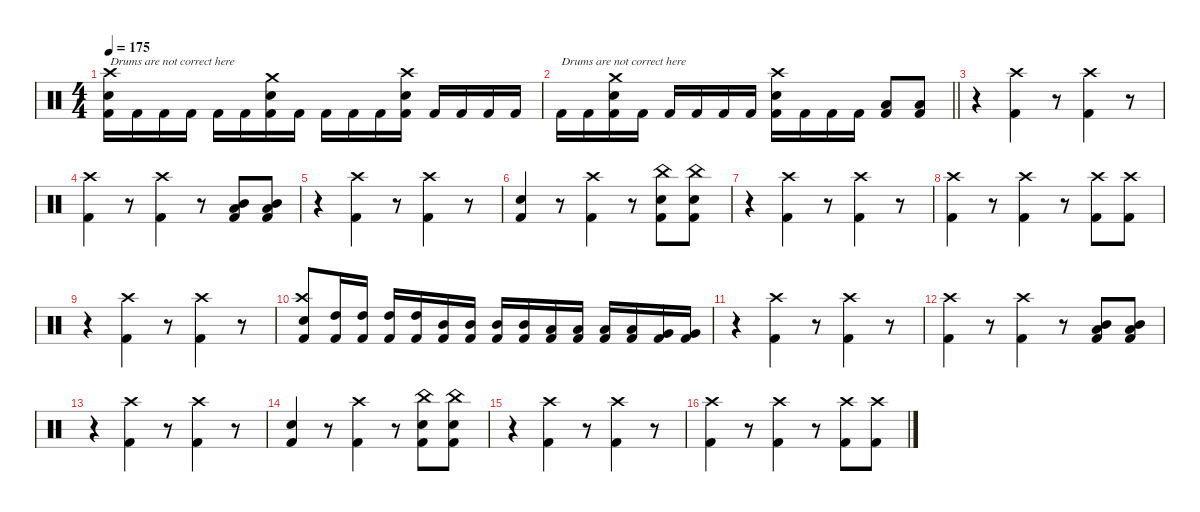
\defaultSystemsLayout 4
\hideDynamics
\bracketExtendMode nobrackets
\singleTrackTrackNamePolicy hidden
\multiTrackTrackNamePolicy hidden
\firstSystemTrackNameMode fullname
\firstSystemTrackNameOrientation horizontal
\otherSystemsTrackNameOrientation horizontal
\track ("Fredrik Andersson" "drm.") {instrument percussion}
\staff {score}
\articulation defaults
\ts (4 4)
\tempo 175
\clef neutral
\ks c
("Crash high (hit)" "Snare (hit) 2" "Kick (hit) 2").16{txt "Drums are not correct here" dy f beam Down} "Kick (hit) 2".16{beam Down} "Kick (hit) 2".16{beam Down} "Kick (hit) 2".16{beam Down} "Kick (hit) 2".16{beam Down} "Kick (hit) 2".16{beam Down} ("Crash medium (hit)" "Snare (hit) 2" "Kick (hit) 2").16{beam Down} "Kick (hit) 2".16{beam Down} "Kick (hit) 2".16{beam Down} "Kick (hit) 2".16{beam Down} "Kick (hit) 2".16{beam Down} ("Crash high (hit)" "Snare (hit) 2" "Kick (hit) 2").16{beam Down} "Kick (hit) 2".16{beam Up} "Kick (hit) 2".16{beam Up} "Kick (hit) 2".16{beam Up} "Kick (hit) 2".16{beam Up} |
\barLineRight lightlight "Kick (hit) 2".16{txt "Drums are not correct here" beam Down} "Kick (hit) 2".16{beam Down}
("Crash medium (hit)" "Snare (hit) 2" "Kick (hit) 2").16{beam Down} "Kick (hit) 2".16{beam Down} "Kick (hit) 2".16{beam Up} "Kick (hit) 2".16{beam Up} "Kick (hit) 2".16{beam Up} "Kick (hit) 2".16{beam Up} ("Crash high (hit)" "Snare (hit) 2" "Kick (hit) 2").16{beam Down} "Kick (hit) 2".16{beam Down} "Kick (hit) 2".16{beam Down} "Kick (hit) 2".16{beam Down} ("Low Tom (hit)" "Kick (hit) 2").8{beam Up} ("Low Tom (hit)" "Kick (hit) 2").8{beam Up} |
r.4{beam Down} ("Crash high (hit)" "Kick (hit) 2").4{beam Down} r.8{beam Down} ("Crash high (hit)" "Kick (hit) 2").4{beam Down} r.8{beam Down} |
("Crash high (hit)" "Kick (hit) 2").4{beam Down} r.8{beam Down} ("Crash high (hit)" "Kick (hit) 2").4{beam Down} r.8{beam Down} ("Mid Tom (hit)" "Low Tom (hit)" "Kick (hit) 2").8{beam Up} ("Mid Tom (hit)" "Low Tom (hit)" "Kick (hit) 2").8{beam Up} |
r.4{beam Down} ("Crash high (hit)" "Kick (hit) 2").4{beam Down} r.8{beam Down} ("Crash high (hit)" "Kick (hit) 2").4{beam Down} r.8{beam Down} |
("Snare (hit) 2" "Kick (hit) 2").4{beam Up} r.8{beam Up} ("Crash high (hit)" "Kick (hit) 2").4{beam Down} r.8{beam Down} ("China (hit)" "Snare (hit) 2" "Kick (hit) 2").8{beam Down} ("China (hit)" "Snare (hit) 2" "Kick (hit) 2").8{beam Down} |
r.4{beam Down} ("Crash high (hit)" "Kick (hit) 2").4{beam Down} r.8{beam Down} ("Crash high (hit)" "Kick (hit) 2").4{beam Down} r.8{beam Down} |
("Crash high (hit)" "Kick (hit) 2").4{beam Down} r.8{beam Down} ("Crash high (hit)" "Kick (hit) 2").4{beam Down} r.8{beam Down} ("Crash high (hit)" "Kick (hit) 2").8{beam Down} ("Crash high (hit)" "Kick (hit) 2").8{beam Down} |
r.4{beam Down} ("Crash high (hit)" "Kick (hit) 2").4{beam Down} r.8{beam Down} ("Crash high (hit)" "Kick (hit) 2").4{beam Down} r.8{beam Down} |
("Crash high (hit)" "Snare (hit) 2" "Kick (hit) 2").8{beam Up} ("High Tom (hit)" "Kick (hit) 2").16{beam Up} ("High Tom (hit)" "Kick (hit) 2").16{beam Up} ("High Tom (hit)" "Kick (hit) 2").16{beam Up} ("High Tom (hit)" "Kick (hit) 2").16{beam Up} ("Mid Tom (hit)" "Kick (hit) 2").16{beam Up} ("Mid Tom (hit)" "Kick (hit) 2").16{beam Up} ("Mid Tom (hit)" "Kick (hit) 2").16{beam Up} ("Mid Tom (hit)" "Kick (hit) 2").16{beam Up} ("Low Tom (hit)" "Kick (hit) 2").16{beam Up} ("Low Tom (hit)" "Kick (hit) 2").16{beam Up} ("Low Tom (hit)" "Kick (hit) 2").16{beam Up} ("Low Tom (hit)" "Kick (hit) 2").16{beam Up} ("Very Low Tom (hit)" "Kick (hit) 2").16{beam Up} ("Very Low Tom (hit)" "Kick (hit) 2").16{beam Up} |
r.4{beam Down} ("Crash high (hit)" "Kick (hit) 2").4{beam Down} r.8{beam Down} ("Crash high (hit)" "Kick (hit) 2").4{beam Down} r.8{beam Down} |
("Crash high (hit)" "Kick (hit) 2").4{beam Down} r.8{beam Down} ("Crash high (hit)" "Kick (hit) 2").4{beam Down} r.8{beam Down} ("Mid Tom (hit)" "Low Tom (hit)" "Kick (hit) 2").8{beam Up} ("Mid Tom (hit)" "Low Tom (hit)" "Kick (hit) 2").8{beam Up} |
r.4{beam Down} ("Crash high (hit)" "Kick (hit) 2").4{beam Down} r.8{beam Down} ("Crash high (hit)" "Kick (hit) 2").4{beam Down} r.8{beam Down} |
("Snare (hit) 2" "Kick (hit) 2").4{beam Up} r.8{beam Up} ("Crash high (hit)" "Kick (hit) 2").4{beam Down} r.8{beam Down} ("China (hit)" "Snare (hit) 2" "Kick (hit) 2").8{beam Down} ("China (hit)" "Snare (hit) 2" "Kick (hit) 2").8{beam Down} |
r.4{beam Down} ("Crash high (hit)" "Kick (hit) 2").4{beam Down} r.8{beam Down} ("Crash high (hit)" "Kick (hit) 2").4{beam Down} r.8{beam Down} |
("Crash high (hit)" "Kick (hit) 2").4{beam Down} r.8{beam Down} ("Crash high (hit)" "Kick (hit) 2").4{beam Down} r.8{beam Down} ("Crash high (hit)" "Kick (hit) 2").8{beam Down} ("Crash high (hit)" "Kick (hit) 2").8{beam Down}
